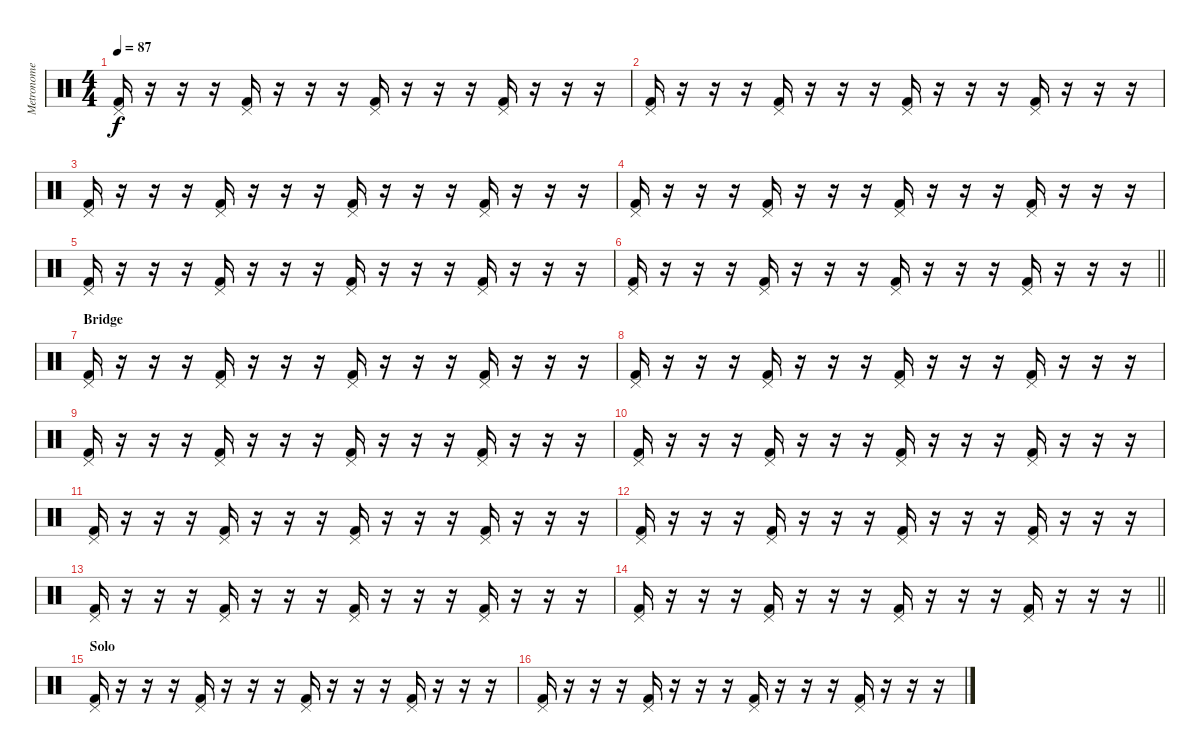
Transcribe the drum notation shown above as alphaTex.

\track ("Metronome" "Metronome") {mute instrument percussion}
\staff {score}
\articulation defaults
\ts (4 4)
\tempo 87
\clef neutral
\ks c
("Pedal Hi-Hat (hit)" "Kick (hit) 2").16{dy f} r.16 r.16 r.16 ("Pedal Hi-Hat (hit)" "Kick (hit) 2").16 r.16 r.16 r.16 ("Pedal Hi-Hat (hit)" "Kick (hit) 2").16 r.16 r.16 r.16 ("Pedal Hi-Hat (hit)" "Kick (hit) 2").16 r.16 r.16 r.16 |
("Pedal Hi-Hat (hit)" "Kick (hit) 2").16 r.16 r.16 r.16 ("Pedal Hi-Hat (hit)" "Kick (hit) 2").16 r.16 r.16 r.16 ("Pedal Hi-Hat (hit)" "Kick (hit) 2").16 r.16 r.16 r.16 ("Pedal Hi-Hat (hit)" "Kick (hit) 2").16 r.16 r.16 r.16 |
("Pedal Hi-Hat (hit)" "Kick (hit) 2").16 r.16 r.16 r.16 ("Pedal Hi-Hat (hit)" "Kick (hit) 2").16 r.16 r.16 r.16 ("Pedal Hi-Hat (hit)" "Kick (hit) 2").16 r.16 r.16 r.16 ("Pedal Hi-Hat (hit)" "Kick (hit) 2").16 r.16 r.16 r.16 |
("Pedal Hi-Hat (hit)" "Kick (hit) 2").16 r.16 r.16 r.16 ("Pedal Hi-Hat (hit)" "Kick (hit) 2").16 r.16 r.16 r.16 ("Pedal Hi-Hat (hit)" "Kick (hit) 2").16 r.16 r.16 r.16 ("Pedal Hi-Hat (hit)" "Kick (hit) 2").16 r.16 r.16 r.16 |
("Pedal Hi-Hat (hit)" "Kick (hit) 2").16 r.16 r.16 r.16 ("Pedal Hi-Hat (hit)" "Kick (hit) 2").16 r.16 r.16 r.16 ("Pedal Hi-Hat (hit)" "Kick (hit) 2").16 r.16 r.16 r.16 ("Pedal Hi-Hat (hit)" "Kick (hit) 2").16 r.16 r.16 r.16 |
\barLineRight lightlight
("Pedal Hi-Hat (hit)" "Kick (hit) 2").16 r.16 r.16 r.16 ("Pedal Hi-Hat (hit)" "Kick (hit) 2").16 r.16 r.16 r.16 ("Pedal Hi-Hat (hit)" "Kick (hit) 2").16 r.16 r.16 r.16 ("Pedal Hi-Hat (hit)" "Kick (hit) 2").16 r.16 r.16 r.16 |
\section ("" "Bridge")
("Pedal Hi-Hat (hit)" "Kick (hit) 2").16 r.16 r.16 r.16 ("Pedal Hi-Hat (hit)" "Kick (hit) 2").16 r.16 r.16 r.16 ("Pedal Hi-Hat (hit)" "Kick (hit) 2").16 r.16 r.16 r.16 ("Pedal Hi-Hat (hit)" "Kick (hit) 2").16 r.16 r.16 r.16 |
("Pedal Hi-Hat (hit)" "Kick (hit) 2").16 r.16 r.16 r.16 ("Pedal Hi-Hat (hit)" "Kick (hit) 2").16 r.16 r.16 r.16 ("Pedal Hi-Hat (hit)" "Kick (hit) 2").16 r.16 r.16 r.16 ("Pedal Hi-Hat (hit)" "Kick (hit) 2").16 r.16 r.16 r.16 |
("Pedal Hi-Hat (hit)" "Kick (hit) 2").16 r.16 r.16 r.16 ("Pedal Hi-Hat (hit)" "Kick (hit) 2").16 r.16 r.16 r.16 ("Pedal Hi-Hat (hit)" "Kick (hit) 2").16 r.16 r.16 r.16 ("Pedal Hi-Hat (hit)" "Kick (hit) 2").16 r.16 r.16 r.16 |
("Pedal Hi-Hat (hit)" "Kick (hit) 2").16 r.16 r.16 r.16 ("Pedal Hi-Hat (hit)" "Kick (hit) 2").16 r.16 r.16 r.16 ("Pedal Hi-Hat (hit)" "Kick (hit) 2").16 r.16 r.16 r.16 ("Pedal Hi-Hat (hit)" "Kick (hit) 2").16 r.16 r.16 r.16 |
("Pedal Hi-Hat (hit)" "Kick (hit) 2").16 r.16 r.16 r.16 ("Pedal Hi-Hat (hit)" "Kick (hit) 2").16 r.16 r.16 r.16 ("Pedal Hi-Hat (hit)" "Kick (hit) 2").16 r.16 r.16 r.16 ("Pedal Hi-Hat (hit)" "Kick (hit) 2").16 r.16 r.16 r.16 |
("Pedal Hi-Hat (hit)" "Kick (hit) 2").16 r.16 r.16 r.16 ("Pedal Hi-Hat (hit)" "Kick (hit) 2").16 r.16 r.16 r.16 ("Pedal Hi-Hat (hit)" "Kick (hit) 2").16 r.16 r.16 r.16 ("Pedal Hi-Hat (hit)" "Kick (hit) 2").16 r.16 r.16 r.16 |
("Pedal Hi-Hat (hit)" "Kick (hit) 2").16 r.16 r.16 r.16 ("Pedal Hi-Hat (hit)" "Kick (hit) 2").16 r.16 r.16 r.16 ("Pedal Hi-Hat (hit)" "Kick (hit) 2").16 r.16 r.16 r.16 ("Pedal Hi-Hat (hit)" "Kick (hit) 2").16 r.16 r.16 r.16 |
\barLineRight lightlight
("Pedal Hi-Hat (hit)" "Kick (hit) 2").16 r.16 r.16 r.16 ("Pedal Hi-Hat (hit)" "Kick (hit) 2").16 r.16 r.16 r.16 ("Pedal Hi-Hat (hit)" "Kick (hit) 2").16 r.16 r.16 r.16 ("Pedal Hi-Hat (hit)" "Kick (hit) 2").16 r.16 r.16 r.16 |
\section ("" "Solo")
("Pedal Hi-Hat (hit)" "Kick (hit) 2").16 r.16 r.16 r.16 ("Pedal Hi-Hat (hit)" "Kick (hit) 2").16 r.16 r.16 r.16 ("Pedal Hi-Hat (hit)" "Kick (hit) 2").16 r.16 r.16 r.16 ("Pedal Hi-Hat (hit)" "Kick (hit) 2").16 r.16 r.16 r.16 |
("Pedal Hi-Hat (hit)" "Kick (hit) 2").16 r.16 r.16 r.16 ("Pedal Hi-Hat (hit)" "Kick (hit) 2").16 r.16 r.16 r.16 ("Pedal Hi-Hat (hit)" "Kick (hit) 2").16 r.16 r.16 r.16 ("Pedal Hi-Hat (hit)" "Kick (hit) 2").16 r.16 r.16 r.16
